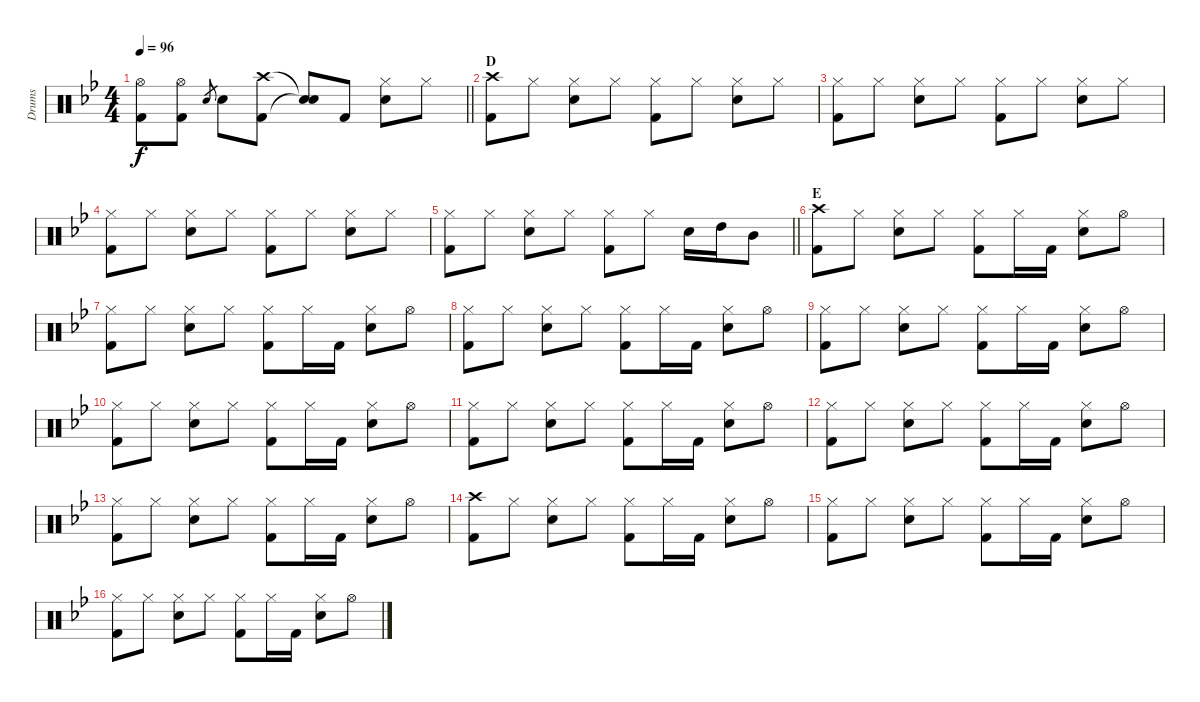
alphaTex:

\track ("Drums" "Drums") {instrument percussion}
\staff {score}
\articulation defaults
\ts (4 4)
\tempo 96
\clef neutral
\barLineRight lightlight
\ks gminor
("Hi-Hat (open)" "Kick (hit) 2").8{dy f} ("Hi-Hat (open)" "Kick (hit) 2").8 "Electric Snare (hit)".8{gr} "Electric Snare (hit)".8 ("Crash high (hit)" "Kick (hit) 2").8 ("Snare (hit)"{t} "Snare (hit)"{t}).8 "Kick (hit) 2".8 ("Hi-Hat (closed)" "Electric Snare (hit)").8 "Hi-Hat (closed)".8 |
\section ("" "D")
("Crash high (hit)" "Kick (hit) 2").8 "Hi-Hat (closed)".8 ("Hi-Hat (closed)" "Electric Snare (hit)").8 "Hi-Hat (closed)".8 ("Hi-Hat (closed)" "Kick (hit) 2").8 "Hi-Hat (closed)".8 ("Hi-Hat (closed)" "Electric Snare (hit)").8 "Hi-Hat (closed)".8 |
("Hi-Hat (closed)" "Kick (hit) 2").8 "Hi-Hat (closed)".8 ("Hi-Hat (closed)" "Electric Snare (hit)").8 "Hi-Hat (closed)".8 ("Hi-Hat (closed)" "Kick (hit) 2").8 "Hi-Hat (closed)".8 ("Hi-Hat (closed)" "Electric Snare (hit)").8 "Hi-Hat (closed)".8 |
("Hi-Hat (closed)" "Kick (hit) 2").8 "Hi-Hat (closed)".8 ("Hi-Hat (closed)" "Electric Snare (hit)").8 "Hi-Hat (closed)".8 ("Hi-Hat (closed)" "Kick (hit) 2").8 "Hi-Hat (closed)".8 ("Hi-Hat (closed)" "Electric Snare (hit)").8 "Hi-Hat (closed)".8 |
\barLineRight lightlight
("Hi-Hat (closed)" "Kick (hit) 2").8 "Hi-Hat (closed)".8 ("Hi-Hat (closed)" "Electric Snare (hit)").8 "Hi-Hat (closed)".8 ("Hi-Hat (closed)" "Kick (hit) 2").8 "Hi-Hat (closed)".8 "Electric Snare (hit)".16 "High Tom (hit)".16 "Mid Tom (hit)".8 |
\section ("" "E")
("Crash high (hit)" "Kick (hit) 2").8 "Hi-Hat (closed)".8 ("Hi-Hat (closed)" "Electric Snare (hit)").8 "Hi-Hat (closed)".8 ("Hi-Hat (closed)" "Kick (hit) 2").8 "Hi-Hat (closed)".16 "Kick (hit) 2".16 ("Hi-Hat (closed)" "Electric Snare (hit)").8 "Hi-Hat (open)".8 |
("Hi-Hat (closed)" "Kick (hit) 2").8 "Hi-Hat (closed)".8 ("Hi-Hat (closed)" "Electric Snare (hit)").8 "Hi-Hat (closed)".8 ("Hi-Hat (closed)" "Kick (hit) 2").8 "Hi-Hat (closed)".16 "Kick (hit) 2".16 ("Hi-Hat (closed)" "Electric Snare (hit)").8 "Hi-Hat (open)".8 |
("Hi-Hat (closed)" "Kick (hit) 2").8 "Hi-Hat (closed)".8 ("Hi-Hat (closed)" "Electric Snare (hit)").8 "Hi-Hat (closed)".8 ("Hi-Hat (closed)" "Kick (hit) 2").8 "Hi-Hat (closed)".16 "Kick (hit) 2".16 ("Hi-Hat (closed)" "Electric Snare (hit)").8 "Hi-Hat (open)".8 |
("Hi-Hat (closed)" "Kick (hit) 2").8 "Hi-Hat (closed)".8 ("Hi-Hat (closed)" "Electric Snare (hit)").8 "Hi-Hat (closed)".8 ("Hi-Hat (closed)" "Kick (hit) 2").8 "Hi-Hat (closed)".16 "Kick (hit) 2".16 ("Hi-Hat (closed)" "Electric Snare (hit)").8 "Hi-Hat (open)".8 |
("Hi-Hat (closed)" "Kick (hit) 2").8 "Hi-Hat (closed)".8 ("Hi-Hat (closed)" "Electric Snare (hit)").8 "Hi-Hat (closed)".8 ("Hi-Hat (closed)" "Kick (hit) 2").8 "Hi-Hat (closed)".16 "Kick (hit) 2".16 ("Hi-Hat (closed)" "Electric Snare (hit)").8 "Hi-Hat (open)".8 |
("Hi-Hat (closed)" "Kick (hit) 2").8 "Hi-Hat (closed)".8 ("Hi-Hat (closed)" "Electric Snare (hit)").8 "Hi-Hat (closed)".8 ("Hi-Hat (closed)" "Kick (hit) 2").8 "Hi-Hat (closed)".16 "Kick (hit) 2".16 ("Hi-Hat (closed)" "Electric Snare (hit)").8 "Hi-Hat (open)".8 |
("Hi-Hat (closed)" "Kick (hit) 2").8 "Hi-Hat (closed)".8 ("Hi-Hat (closed)" "Electric Snare (hit)").8 "Hi-Hat (closed)".8 ("Hi-Hat (closed)" "Kick (hit) 2").8 "Hi-Hat (closed)".16 "Kick (hit) 2".16 ("Hi-Hat (closed)" "Electric Snare (hit)").8 "Hi-Hat (open)".8 |
("Hi-Hat (closed)" "Kick (hit) 2").8 "Hi-Hat (closed)".8 ("Hi-Hat (closed)" "Electric Snare (hit)").8 "Hi-Hat (closed)".8 ("Hi-Hat (closed)" "Kick (hit) 2").8 "Hi-Hat (closed)".16 "Kick (hit) 2".16 ("Hi-Hat (closed)" "Electric Snare (hit)").8 "Hi-Hat (open)".8 |
("Crash high (hit)" "Kick (hit) 2").8 "Hi-Hat (closed)".8 ("Hi-Hat (closed)" "Electric Snare (hit)").8 "Hi-Hat (closed)".8 ("Hi-Hat (closed)" "Kick (hit) 2").8 "Hi-Hat (closed)".16 "Kick (hit) 2".16 ("Hi-Hat (closed)" "Electric Snare (hit)").8 "Hi-Hat (open)".8 |
("Hi-Hat (closed)" "Kick (hit) 2").8 "Hi-Hat (closed)".8 ("Hi-Hat (closed)" "Electric Snare (hit)").8 "Hi-Hat (closed)".8 ("Hi-Hat (closed)" "Kick (hit) 2").8 "Hi-Hat (closed)".16 "Kick (hit) 2".16 ("Hi-Hat (closed)" "Electric Snare (hit)").8 "Hi-Hat (open)".8 |
("Hi-Hat (closed)" "Kick (hit) 2").8 "Hi-Hat (closed)".8 ("Hi-Hat (closed)" "Electric Snare (hit)").8 "Hi-Hat (closed)".8 ("Hi-Hat (closed)" "Kick (hit) 2").8 "Hi-Hat (closed)".16 "Kick (hit) 2".16 ("Hi-Hat (closed)" "Electric Snare (hit)").8 "Hi-Hat (open)".8
